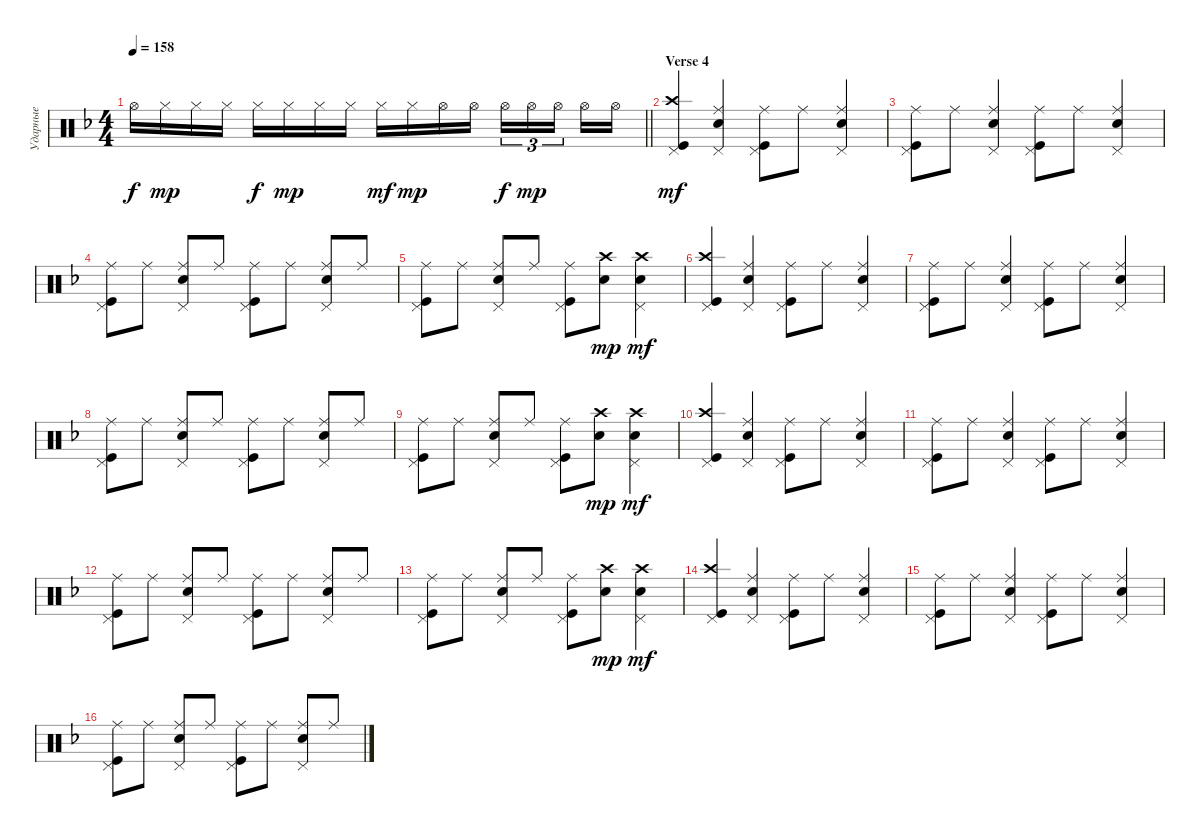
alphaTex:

\track ("Ударные" "Ударные") {instrument percussion}
\staff {score}
\articulation defaults
\ts (4 4)
\tempo 158
\clef neutral
\barLineRight lightlight
\ks dminor "Hi-Hat (open)".16{dy f} "Hi-Hat (closed)".16{dy mp} "Hi-Hat (closed)".16 "Hi-Hat (closed)".16 "Hi-Hat (closed)".16{dy f} "Hi-Hat (closed)".16{dy mp} "Hi-Hat (closed)".16 "Hi-Hat (closed)".16 "Hi-Hat (closed)".16{dy mf} "Hi-Hat (closed)".16{dy mp} "Hi-Hat (open)".16 "Hi-Hat (open)".16 "Hi-Hat (open)".16{tu (3 2) dy f} "Hi-Hat (open)".16{tu (3 2) dy mp} "Hi-Hat (open)".16{tu (3 2) beam splitsecondary} "Hi-Hat (open)".16 "Hi-Hat (open)".16
|
\section ("" "Verse 4")
("Kick (hit)" "Crash high (hit)" "Pedal Hi-Hat (hit)").4{dy mf} ("Ride (middle)" "Snare (hit) 2" "Pedal Hi-Hat (hit)").4 ("Ride (middle)" "Kick (hit)" "Pedal Hi-Hat (hit)").8 "Ride (middle)".8 ("Snare (hit) 2" "Pedal Hi-Hat (hit)" "Ride (middle)").4 |
("Ride (middle)" "Kick (hit)" "Pedal Hi-Hat (hit)").8 "Ride (middle)".8 ("Snare (hit) 2" "Pedal Hi-Hat (hit)" "Ride (middle)").4 ("Ride (middle)" "Kick (hit)" "Pedal Hi-Hat (hit)").8 "Ride (middle)".8 ("Snare (hit) 2" "Pedal Hi-Hat (hit)" "Ride (middle)").4 |
("Ride (middle)" "Kick (hit)" "Pedal Hi-Hat (hit)").8 "Ride (middle)".8 ("Snare (hit) 2" "Pedal Hi-Hat (hit)" "Ride (middle)").8 "Ride (middle)".8 ("Ride (middle)" "Kick (hit)" "Pedal Hi-Hat (hit)").8 "Ride (middle)".8 ("Snare (hit) 2" "Pedal Hi-Hat (hit)" "Ride (middle)").8 "Ride (middle)".8 |
("Ride (middle)" "Kick (hit)" "Pedal Hi-Hat (hit)").8 "Ride (middle)".8 ("Snare (hit) 2" "Pedal Hi-Hat (hit)" "Ride (middle)").8 "Ride (middle)".8 ("Ride (middle)" "Kick (hit)" "Pedal Hi-Hat (hit)").8 ("Crash high (hit)" "Snare (hit) 2").8{dy mp} ("Crash high (hit)" "Snare (hit) 2" "Pedal Hi-Hat (hit)").4{dy mf} |
("Kick (hit)" "Crash high (hit)" "Pedal Hi-Hat (hit)").4 ("Ride (middle)" "Snare (hit) 2" "Pedal Hi-Hat (hit)").4 ("Ride (middle)" "Kick (hit)" "Pedal Hi-Hat (hit)").8 "Ride (middle)".8 ("Snare (hit) 2" "Pedal Hi-Hat (hit)" "Ride (middle)").4 |
("Ride (middle)" "Kick (hit)" "Pedal Hi-Hat (hit)").8 "Ride (middle)".8 ("Snare (hit) 2" "Pedal Hi-Hat (hit)" "Ride (middle)").4 ("Ride (middle)" "Kick (hit)" "Pedal Hi-Hat (hit)").8 "Ride (middle)".8 ("Snare (hit) 2" "Pedal Hi-Hat (hit)" "Ride (middle)").4 |
("Ride (middle)" "Kick (hit)" "Pedal Hi-Hat (hit)").8 "Ride (middle)".8 ("Snare (hit) 2" "Pedal Hi-Hat (hit)" "Ride (middle)").8 "Ride (middle)".8 ("Ride (middle)" "Kick (hit)" "Pedal Hi-Hat (hit)").8 "Ride (middle)".8 ("Snare (hit) 2" "Pedal Hi-Hat (hit)" "Ride (middle)").8 "Ride (middle)".8 |
("Ride (middle)" "Kick (hit)" "Pedal Hi-Hat (hit)").8 "Ride (middle)".8 ("Snare (hit) 2" "Pedal Hi-Hat (hit)" "Ride (middle)").8 "Ride (middle)".8 ("Ride (middle)" "Kick (hit)" "Pedal Hi-Hat (hit)").8 ("Crash high (hit)" "Snare (hit) 2").8{dy mp} ("Crash high (hit)" "Snare (hit) 2" "Pedal Hi-Hat (hit)").4{dy mf} |
("Kick (hit)" "Crash high (hit)" "Pedal Hi-Hat (hit)").4 ("Ride (middle)" "Snare (hit) 2" "Pedal Hi-Hat (hit)").4 ("Ride (middle)" "Kick (hit)" "Pedal Hi-Hat (hit)").8 "Ride (middle)".8 ("Snare (hit) 2" "Pedal Hi-Hat (hit)" "Ride (middle)").4 |
("Ride (middle)" "Kick (hit)" "Pedal Hi-Hat (hit)").8 "Ride (middle)".8 ("Snare (hit) 2" "Pedal Hi-Hat (hit)" "Ride (middle)").4 ("Ride (middle)" "Kick (hit)" "Pedal Hi-Hat (hit)").8 "Ride (middle)".8 ("Snare (hit) 2" "Pedal Hi-Hat (hit)" "Ride (middle)").4 |
("Ride (middle)" "Kick (hit)" "Pedal Hi-Hat (hit)").8 "Ride (middle)".8 ("Snare (hit) 2" "Pedal Hi-Hat (hit)" "Ride (middle)").8 "Ride (middle)".8 ("Ride (middle)" "Kick (hit)" "Pedal Hi-Hat (hit)").8 "Ride (middle)".8 ("Snare (hit) 2" "Pedal Hi-Hat (hit)" "Ride (middle)").8 "Ride (middle)".8 |
("Ride (middle)" "Kick (hit)" "Pedal Hi-Hat (hit)").8 "Ride (middle)".8 ("Snare (hit) 2" "Pedal Hi-Hat (hit)" "Ride (middle)").8 "Ride (middle)".8 ("Ride (middle)" "Kick (hit)" "Pedal Hi-Hat (hit)").8 ("Crash high (hit)" "Snare (hit) 2").8{dy mp} ("Crash high (hit)" "Snare (hit) 2" "Pedal Hi-Hat (hit)").4{dy mf} |
("Kick (hit)" "Crash high (hit)" "Pedal Hi-Hat (hit)").4 ("Ride (middle)" "Snare (hit) 2" "Pedal Hi-Hat (hit)").4 ("Ride (middle)" "Kick (hit)" "Pedal Hi-Hat (hit)").8 "Ride (middle)".8 ("Snare (hit) 2" "Pedal Hi-Hat (hit)" "Ride (middle)").4 |
("Ride (middle)" "Kick (hit)" "Pedal Hi-Hat (hit)").8 "Ride (middle)".8 ("Snare (hit) 2" "Pedal Hi-Hat (hit)" "Ride (middle)").4 ("Ride (middle)" "Kick (hit)" "Pedal Hi-Hat (hit)").8 "Ride (middle)".8 ("Snare (hit) 2" "Pedal Hi-Hat (hit)" "Ride (middle)").4 |
("Ride (middle)" "Kick (hit)" "Pedal Hi-Hat (hit)").8 "Ride (middle)".8 ("Snare (hit) 2" "Pedal Hi-Hat (hit)" "Ride (middle)").8 "Ride (middle)".8 ("Ride (middle)" "Kick (hit)" "Pedal Hi-Hat (hit)").8 "Ride (middle)".8 ("Snare (hit) 2" "Pedal Hi-Hat (hit)" "Ride (middle)").8 "Ride (middle)".8
